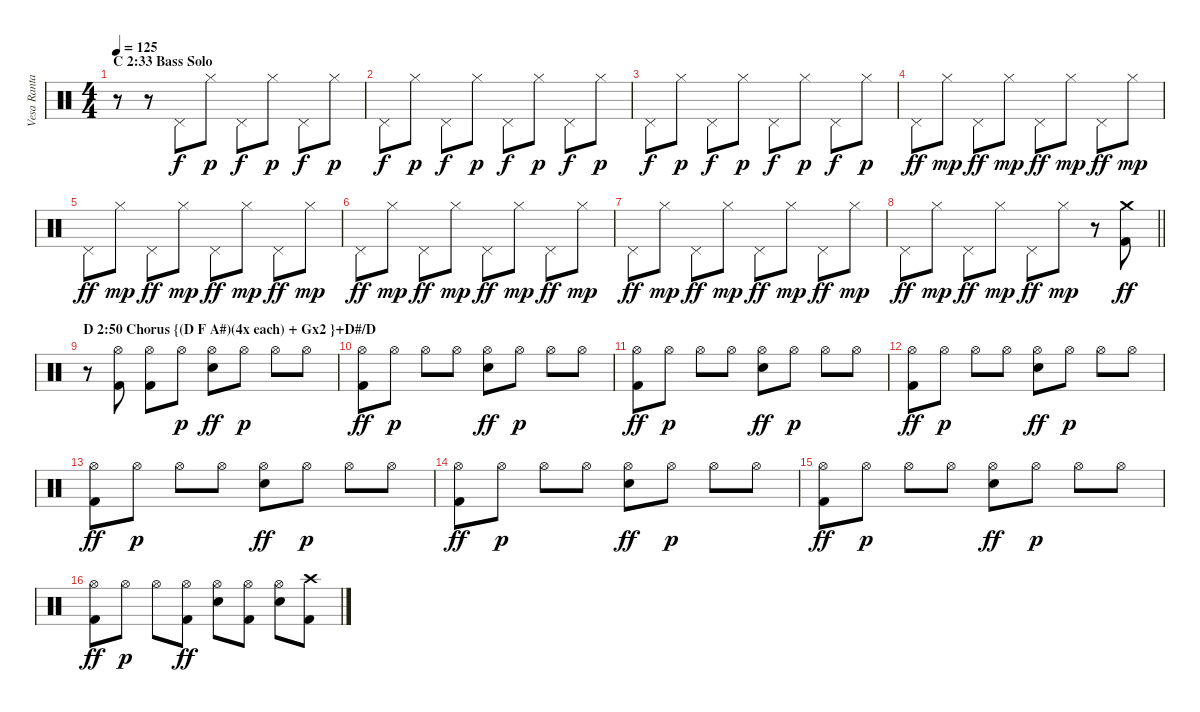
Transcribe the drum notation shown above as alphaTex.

\track ("Vesa Ranta (drums)" "Vesa Ranta") {instrument percussion}
\staff {score}
\articulation defaults
\ts (4 4)
\section ("" "C 2:33 Bass Solo")
\tempo 125
\clef neutral
\ks c
r.8{dy ff} r.8 "Pedal Hi-Hat (hit)".8{dy f} "Hi-Hat (closed)".8{dy p} "Pedal Hi-Hat (hit)".8{dy f} "Hi-Hat (closed)".8{dy p} "Pedal Hi-Hat (hit)".8{dy f} "Hi-Hat (closed)".8{dy p} |
"Pedal Hi-Hat (hit)".8{dy f} "Hi-Hat (closed)".8{dy p} "Pedal Hi-Hat (hit)".8{dy f} "Hi-Hat (closed)".8{dy p} "Pedal Hi-Hat (hit)".8{dy f} "Hi-Hat (closed)".8{dy p} "Pedal Hi-Hat (hit)".8{dy f} "Hi-Hat (closed)".8{dy p} |
"Pedal Hi-Hat (hit)".8{dy f} "Hi-Hat (closed)".8{dy p} "Pedal Hi-Hat (hit)".8{dy f} "Hi-Hat (closed)".8{dy p} "Pedal Hi-Hat (hit)".8{dy f} "Hi-Hat (closed)".8{dy p} "Pedal Hi-Hat (hit)".8{dy f} "Hi-Hat (closed)".8{dy p} |
"Pedal Hi-Hat (hit)".8{dy ff} "Hi-Hat (closed)".8{dy mp} "Pedal Hi-Hat (hit)".8{dy ff} "Hi-Hat (closed)".8{dy mp} "Pedal Hi-Hat (hit)".8{dy ff} "Hi-Hat (closed)".8{dy mp} "Pedal Hi-Hat (hit)".8{dy ff} "Hi-Hat (closed)".8{dy mp} |
"Pedal Hi-Hat (hit)".8{dy ff} "Hi-Hat (closed)".8{dy mp} "Pedal Hi-Hat (hit)".8{dy ff} "Hi-Hat (closed)".8{dy mp} "Pedal Hi-Hat (hit)".8{dy ff} "Hi-Hat (closed)".8{dy mp} "Pedal Hi-Hat (hit)".8{dy ff} "Hi-Hat (closed)".8{dy mp} |
"Pedal Hi-Hat (hit)".8{dy ff} "Hi-Hat (closed)".8{dy mp} "Pedal Hi-Hat (hit)".8{dy ff} "Hi-Hat (closed)".8{dy mp} "Pedal Hi-Hat (hit)".8{dy ff} "Hi-Hat (closed)".8{dy mp} "Pedal Hi-Hat (hit)".8{dy ff} "Hi-Hat (closed)".8{dy mp} |
"Pedal Hi-Hat (hit)".8{dy ff} "Hi-Hat (closed)".8{dy mp} "Pedal Hi-Hat (hit)".8{dy ff} "Hi-Hat (closed)".8{dy mp} "Pedal Hi-Hat (hit)".8{dy ff} "Hi-Hat (closed)".8{dy mp} "Pedal Hi-Hat (hit)".8{dy ff} "Hi-Hat (closed)".8{dy mp} |
\barLineRight lightlight "Pedal Hi-Hat (hit)".8{dy ff} "Hi-Hat (closed)".8{dy mp} "Pedal Hi-Hat (hit)".8{dy ff} "Hi-Hat (closed)".8{dy mp} "Pedal Hi-Hat (hit)".8{dy ff} "Hi-Hat (closed)".8{dy mp}
r.8 ("Crash medium (hit)" "Kick (hit) 2").8{dy ff} |
\section ("" "D 2:50 Chorus {(D F A#)(4x each) + Gx2 }+D#/D ")
r.8 ("Hi-Hat (open)" "Kick (hit) 2").8 ("Hi-Hat (open)" "Kick (hit) 2").8 "Hi-Hat (open)".8{dy p} ("Hi-Hat (open)" "Electric Snare (hit)").8{dy ff} "Hi-Hat (open)".8{dy p} "Hi-Hat (open)".8 "Hi-Hat (open)".8 |
("Hi-Hat (open)" "Kick (hit) 2").8{dy ff} "Hi-Hat (open)".8{dy p} "Hi-Hat (open)".8 "Hi-Hat (open)".8 ("Hi-Hat (open)" "Electric Snare (hit)").8{dy ff} "Hi-Hat (open)".8{dy p} "Hi-Hat (open)".8 "Hi-Hat (open)".8 |
("Hi-Hat (open)" "Kick (hit) 2").8{dy ff} "Hi-Hat (open)".8{dy p} "Hi-Hat (open)".8 "Hi-Hat (open)".8 ("Hi-Hat (open)" "Electric Snare (hit)").8{dy ff} "Hi-Hat (open)".8{dy p} "Hi-Hat (open)".8 "Hi-Hat (open)".8 |
("Hi-Hat (open)" "Kick (hit) 2").8{dy ff} "Hi-Hat (open)".8{dy p} "Hi-Hat (open)".8 "Hi-Hat (open)".8 ("Hi-Hat (open)" "Electric Snare (hit)").8{dy ff} "Hi-Hat (open)".8{dy p} "Hi-Hat (open)".8 "Hi-Hat (open)".8 |
("Hi-Hat (open)" "Kick (hit) 2").8{dy ff} "Hi-Hat (open)".8{dy p} "Hi-Hat (open)".8 "Hi-Hat (open)".8 ("Hi-Hat (open)" "Electric Snare (hit)").8{dy ff} "Hi-Hat (open)".8{dy p} "Hi-Hat (open)".8 "Hi-Hat (open)".8 |
("Hi-Hat (open)" "Kick (hit) 2").8{dy ff} "Hi-Hat (open)".8{dy p} "Hi-Hat (open)".8 "Hi-Hat (open)".8 ("Hi-Hat (open)" "Electric Snare (hit)").8{dy ff} "Hi-Hat (open)".8{dy p} "Hi-Hat (open)".8 "Hi-Hat (open)".8 |
("Hi-Hat (open)" "Kick (hit) 2").8{dy ff} "Hi-Hat (open)".8{dy p} "Hi-Hat (open)".8 "Hi-Hat (open)".8 ("Hi-Hat (open)" "Electric Snare (hit)").8{dy ff} "Hi-Hat (open)".8{dy p} "Hi-Hat (open)".8 "Hi-Hat (open)".8 |
("Hi-Hat (open)" "Kick (hit) 2").8{dy ff} "Hi-Hat (open)".8{dy p} "Hi-Hat (open)".8 ("Hi-Hat (open)" "Kick (hit) 2").8{dy ff} ("Hi-Hat (open)" "Electric Snare (hit)").8 ("Hi-Hat (open)" "Kick (hit) 2").8 ("Hi-Hat (open)" "Electric Snare (hit)").8 ("Crash high (hit)" "Kick (hit) 2").8
